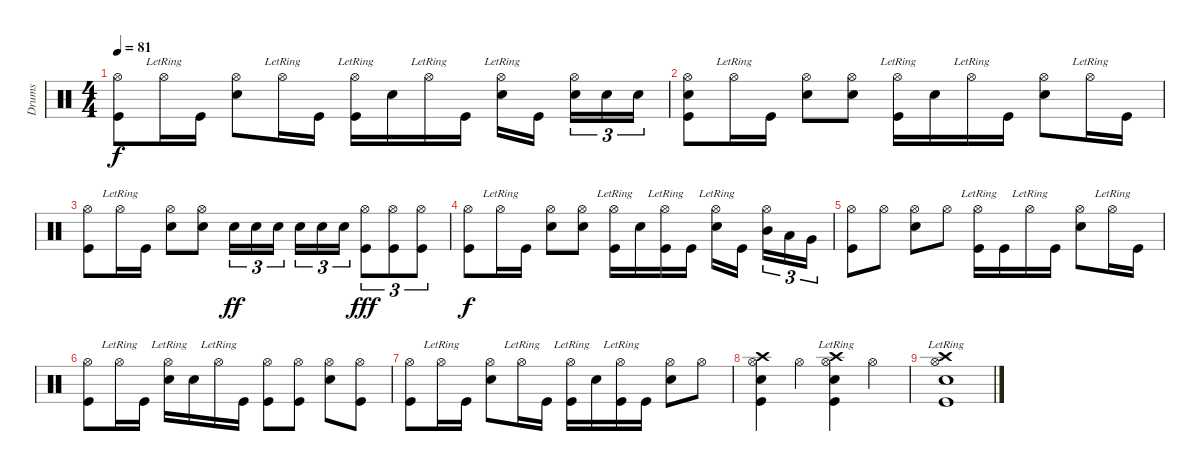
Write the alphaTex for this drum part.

\track ("Drums" "Drums") {instrument percussion}
\staff {score}
\articulation defaults
\ts (4 4)
\tempo 81
\clef neutral
\ks c
("Hi-Hat (open)" "Kick (hit)").8{dy f} "Hi-Hat (open)"{lr}.16 "Kick (hit)".16 ("Hi-Hat (open)" "Snare (hit) 2").8 "Hi-Hat (open)"{lr}.16 "Kick (hit)".16 ("Hi-Hat (open)"{lr} "Kick (hit)").16 "Snare (hit) 2".16 "Hi-Hat (open)"{lr}.16 "Kick (hit)".16 ("Hi-Hat (open)"{lr} "Snare (hit) 2").16 "Kick (hit)".16 ("Hi-Hat (open)" "Snare (hit) 2").16{tu (3 2)} "Snare (hit) 2".16{tu (3 2)} "Snare (hit) 2".16{tu (3 2)} |
("Hi-Hat (open)" "Snare (hit) 2" "Kick (hit)").8 "Hi-Hat (open)"{lr}.16 "Kick (hit)".16 ("Hi-Hat (open)" "Snare (hit) 2").8 ("Hi-Hat (open)" "Snare (hit) 2").8 ("Hi-Hat (open)"{lr} "Kick (hit)").16 "Snare (hit) 2".16 "Hi-Hat (open)"{lr}.16 "Kick (hit)".16 ("Hi-Hat (open)" "Snare (hit) 2").8 "Hi-Hat (open)"{lr}.16 "Kick (hit)".16 |
("Hi-Hat (open)" "Kick (hit)").8 "Hi-Hat (open)"{lr}.16 "Kick (hit)".16 ("Hi-Hat (open)" "Snare (hit) 2").8 ("Hi-Hat (open)" "Snare (hit) 2").8 "Snare (hit) 2".16{tu (3 2) dy ff} "Snare (hit) 2".16{tu (3 2)} "Snare (hit) 2".16{tu (3 2)} "Snare (hit) 2".16{tu (3 2)} "Snare (hit) 2".16{tu (3 2)} "Snare (hit) 2".16{tu (3 2)} ("Hi-Hat (open)" "Kick (hit)").8{tu (3 2) dy fff} ("Hi-Hat (open)" "Kick (hit)").8{tu (3 2)} ("Hi-Hat (open)" "Kick (hit)").8{tu (3 2)} |
("Hi-Hat (open)" "Kick (hit)").8{dy f} "Hi-Hat (open)"{lr}.16 "Kick (hit)".16 ("Hi-Hat (open)" "Snare (hit) 2").8 ("Hi-Hat (open)" "Snare (hit) 2").8 ("Hi-Hat (open)"{lr} "Kick (hit)").16 "Snare (hit) 2".16 ("Hi-Hat (open)"{lr} "Kick (hit)").16 "Kick (hit)".16 ("Hi-Hat (open)"{lr} "Snare (hit) 2").16 "Kick (hit)".16 ("Hi-Hat (open)" "Mid Tom (hit)").16{tu (3 2)} "Low Tom (hit)".16{tu (3 2)} "Very Low Tom (hit)".16{tu (3 2)} |
("Hi-Hat (open)" "Kick (hit)").8 "Hi-Hat (open)".8 ("Hi-Hat (open)" "Snare (hit) 2").8 "Hi-Hat (open)".8 ("Hi-Hat (open)"{lr} "Kick (hit)").16 "Kick (hit)".16 "Hi-Hat (open)"{lr}.16 "Kick (hit)".16 ("Hi-Hat (open)" "Snare (hit) 2").8 "Hi-Hat (open)"{lr}.16 "Kick (hit)".16 |
("Hi-Hat (open)" "Kick (hit)").8 "Hi-Hat (open)"{lr}.16 "Kick (hit)".16 ("Hi-Hat (open)"{lr} "Snare (hit) 2").16 "Snare (hit) 2".16 "Hi-Hat (open)"{lr}.16 "Kick (hit)".16 ("Hi-Hat (open)" "Kick (hit)").8 ("Hi-Hat (open)" "Kick (hit)").8 ("Hi-Hat (open)" "Snare (hit) 2").8 ("Hi-Hat (open)" "Kick (hit)").8 |
("Hi-Hat (open)" "Kick (hit)").8 "Hi-Hat (open)"{lr}.16 "Kick (hit)".16 ("Hi-Hat (open)" "Snare (hit) 2").8 "Hi-Hat (open)"{lr}.16 "Kick (hit)".16 ("Hi-Hat (open)"{lr} "Kick (hit)").16 "Snare (hit) 2".16 ("Hi-Hat (open)"{lr} "Kick (hit)").16 "Kick (hit)".16 ("Hi-Hat (open)" "Snare (hit) 2").8 "Hi-Hat (open)".8 |
("Hi-Hat (open)" "Crash high (hit)" "Snare (hit) 2" "Kick (hit)").4 "Hi-Hat (open)".4 ("Hi-Hat (open)"{lr} "Crash high (hit)" "Snare (hit) 2" "Kick (hit)").4 "Hi-Hat (open)".4 |
("Hi-Hat (open)" "Crash high (hit)"{lr} "Snare (hit) 2" "Kick (hit)").1
